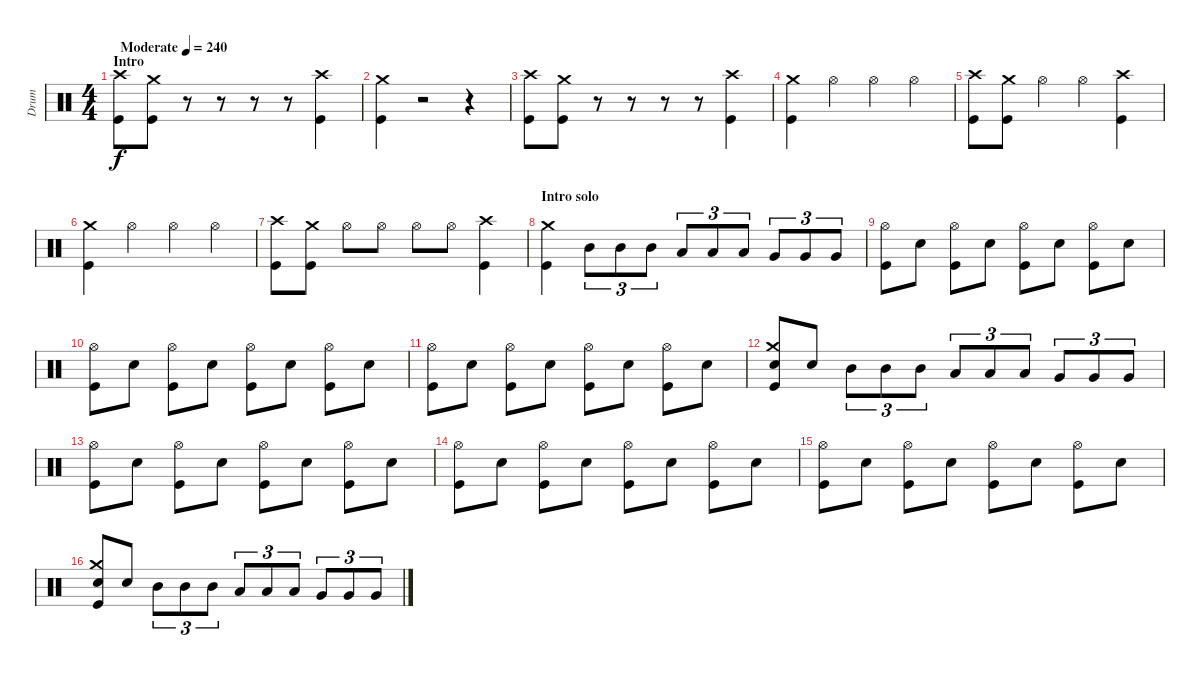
\track ("Drum" "Drum") {instrument percussion}
\staff {score}
\articulation defaults
\ts (4 4)
\section ("" "Intro")
\tempo (240 "Moderate")
\clef neutral
\ks c
("Crash high (hit)" "Kick (hit)").8{dy f} ("Crash medium (hit)" "Kick (hit)").8 r.8 r.8 r.8 r.8 ("Crash high (hit)" "Kick (hit)").4 |
("Crash medium (hit)" "Kick (hit)").4 r.2 r.4 |
("Crash high (hit)" "Kick (hit)").8 ("Crash medium (hit)" "Kick (hit)").8 r.8 r.8 r.8 r.8 ("Crash high (hit)" "Kick (hit)").4 |
("Crash medium (hit)" "Kick (hit)").4 "Hi-Hat (open)".4 "Hi-Hat (open)".4 "Hi-Hat (open)".4 |
("Crash high (hit)" "Kick (hit)").8 ("Crash medium (hit)" "Kick (hit)").8 "Hi-Hat (open)".4 "Hi-Hat (open)".4 ("Crash high (hit)" "Kick (hit)").4 |
("Crash medium (hit)" "Kick (hit)").4 "Hi-Hat (open)".4 "Hi-Hat (open)".4 "Hi-Hat (open)".4 |
("Crash high (hit)" "Kick (hit)").8 ("Crash medium (hit)" "Kick (hit)").8 "Hi-Hat (open)".8 "Hi-Hat (open)".8 "Hi-Hat (open)".8 "Hi-Hat (open)".8 ("Crash high (hit)" "Kick (hit)").4 |
\section ("" "Intro solo")
("Crash medium (hit)" "Kick (hit)").4 "Mid Tom (hit)".8{tu (3 2)} "Mid Tom (hit)".8{tu (3 2)} "Mid Tom (hit)".8{tu (3 2)} "Low Tom (hit)".8{tu (3 2)} "Low Tom (hit)".8{tu (3 2)} "Low Tom (hit)".8{tu (3 2)} "Very Low Tom (hit)".8{tu (3 2)} "Very Low Tom (hit)".8{tu (3 2)} "Very Low Tom (hit)".8{tu (3 2)} |
("Hi-Hat (open)" "Kick (hit)").8 "Snare (hit) 2".8 ("Hi-Hat (open)" "Kick (hit)").8 "Snare (hit) 2".8 ("Hi-Hat (open)" "Kick (hit)").8 "Snare (hit) 2".8 ("Hi-Hat (open)" "Kick (hit)").8 "Snare (hit) 2".8 |
("Hi-Hat (open)" "Kick (hit)").8 "Snare (hit) 2".8 ("Hi-Hat (open)" "Kick (hit)").8 "Snare (hit) 2".8 ("Hi-Hat (open)" "Kick (hit)").8 "Snare (hit) 2".8 ("Hi-Hat (open)" "Kick (hit)").8 "Snare (hit) 2".8 |
("Hi-Hat (open)" "Kick (hit)").8 "Snare (hit) 2".8 ("Hi-Hat (open)" "Kick (hit)").8 "Snare (hit) 2".8 ("Hi-Hat (open)" "Kick (hit)").8 "Snare (hit) 2".8 ("Hi-Hat (open)" "Kick (hit)").8 "Snare (hit) 2".8 |
("Crash medium (hit)" "Snare (hit) 2" "Kick (hit)").8 "Snare (hit) 2".8 "Mid Tom (hit)".8{tu (3 2)} "Mid Tom (hit)".8{tu (3 2)} "Mid Tom (hit)".8{tu (3 2)} "Low Tom (hit)".8{tu (3 2)} "Low Tom (hit)".8{tu (3 2)} "Low Tom (hit)".8{tu (3 2)} "Very Low Tom (hit)".8{tu (3 2)} "Very Low Tom (hit)".8{tu (3 2)} "Very Low Tom (hit)".8{tu (3 2)} |
("Hi-Hat (open)" "Kick (hit)").8 "Snare (hit) 2".8 ("Hi-Hat (open)" "Kick (hit)").8 "Snare (hit) 2".8 ("Hi-Hat (open)" "Kick (hit)").8 "Snare (hit) 2".8 ("Hi-Hat (open)" "Kick (hit)").8 "Snare (hit) 2".8 |
("Hi-Hat (open)" "Kick (hit)").8 "Snare (hit) 2".8 ("Hi-Hat (open)" "Kick (hit)").8 "Snare (hit) 2".8 ("Hi-Hat (open)" "Kick (hit)").8 "Snare (hit) 2".8 ("Hi-Hat (open)" "Kick (hit)").8 "Snare (hit) 2".8 |
("Hi-Hat (open)" "Kick (hit)").8 "Snare (hit) 2".8 ("Hi-Hat (open)" "Kick (hit)").8 "Snare (hit) 2".8 ("Hi-Hat (open)" "Kick (hit)").8 "Snare (hit) 2".8 ("Hi-Hat (open)" "Kick (hit)").8 "Snare (hit) 2".8 |
("Crash medium (hit)" "Snare (hit) 2" "Kick (hit)").8 "Snare (hit) 2".8 "Mid Tom (hit)".8{tu (3 2)} "Mid Tom (hit)".8{tu (3 2)} "Mid Tom (hit)".8{tu (3 2)} "Low Tom (hit)".8{tu (3 2)} "Low Tom (hit)".8{tu (3 2)} "Low Tom (hit)".8{tu (3 2)} "Very Low Tom (hit)".8{tu (3 2)} "Very Low Tom (hit)".8{tu (3 2)} "Very Low Tom (hit)".8{tu (3 2)}
